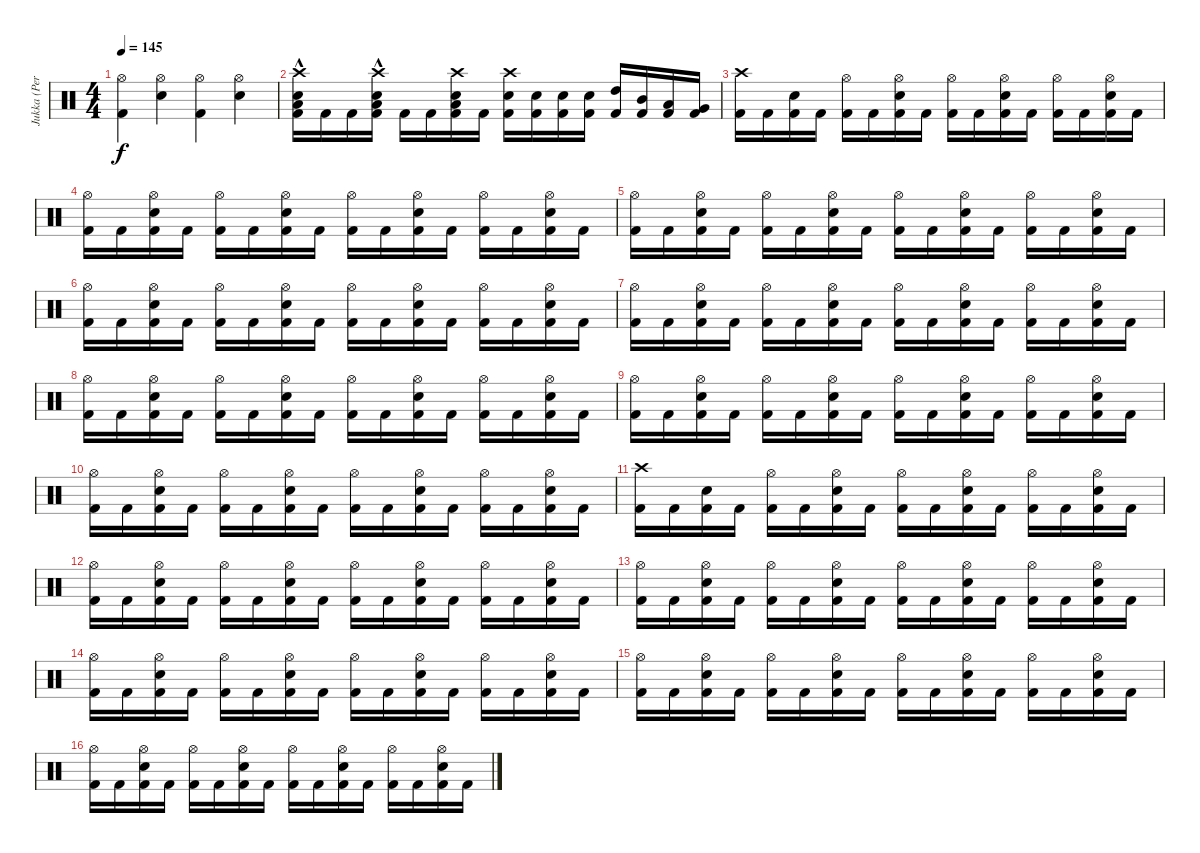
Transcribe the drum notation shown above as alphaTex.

\track ("Jukka (Percussion)" "Jukka (Per") {instrument percussion}
\staff {score}
\articulation defaults
\ts (4 4)
\tempo 145
\clef neutral
\ks c
("Kick (hit) 2" "Hi-Hat (open)").4{dy f} ("Electric Snare (hit)" "Hi-Hat (open)").4 ("Kick (hit) 2" "Hi-Hat (open)").4 ("Electric Snare (hit)" "Hi-Hat (open)").4 |
("Kick (hit) 2" "Electric Snare (hit)" "Low Floor Tom (hit)" "Crash high (hit)"{hac}).16 "Kick (hit) 2".16 "Kick (hit) 2".16 ("Kick (hit) 2" "Electric Snare (hit)" "Low Floor Tom (hit)" "Crash high (hit)"{hac}).16 "Kick (hit) 2".16 "Kick (hit) 2".16 ("Kick (hit) 2" "Electric Snare (hit)" "Low Floor Tom (hit)" "Crash high (hit)").16 "Kick (hit) 2".16 ("Kick (hit) 2" "Electric Snare (hit)" "Crash high (hit)").16 ("Kick (hit) 2" "Electric Snare (hit)").16 ("Kick (hit) 2" "Electric Snare (hit)").16 ("Kick (hit) 2" "Electric Snare (hit)").16 ("Kick (hit) 2" "High Tom (hit)").16 ("Kick (hit) 2" "Mid Tom (hit)").16 ("Kick (hit) 2" "Low Tom (hit)").16 ("Kick (hit) 2" "Very Low Tom (hit)").16 |
("Kick (hit) 2" "Crash high (hit)").16 "Kick (hit) 2".16 ("Kick (hit) 2" "Electric Snare (hit)").16 "Kick (hit) 2".16 ("Kick (hit) 2" "Hi-Hat (open)").16 "Kick (hit) 2".16 ("Kick (hit) 2" "Electric Snare (hit)" "Hi-Hat (open)").16 "Kick (hit) 2".16 ("Kick (hit) 2" "Hi-Hat (open)").16 "Kick (hit) 2".16 ("Kick (hit) 2" "Electric Snare (hit)" "Hi-Hat (open)").16 "Kick (hit) 2".16 ("Kick (hit) 2" "Hi-Hat (open)").16 "Kick (hit) 2".16 ("Kick (hit) 2" "Electric Snare (hit)" "Hi-Hat (open)").16 "Kick (hit) 2".16 |
("Kick (hit) 2" "Hi-Hat (open)").16 "Kick (hit) 2".16 ("Kick (hit) 2" "Electric Snare (hit)" "Hi-Hat (open)").16 "Kick (hit) 2".16 ("Kick (hit) 2" "Hi-Hat (open)").16 "Kick (hit) 2".16 ("Kick (hit) 2" "Electric Snare (hit)" "Hi-Hat (open)").16 "Kick (hit) 2".16 ("Kick (hit) 2" "Hi-Hat (open)").16 "Kick (hit) 2".16 ("Kick (hit) 2" "Electric Snare (hit)" "Hi-Hat (open)").16 "Kick (hit) 2".16 ("Kick (hit) 2" "Hi-Hat (open)").16 "Kick (hit) 2".16 ("Kick (hit) 2" "Electric Snare (hit)" "Hi-Hat (open)").16 "Kick (hit) 2".16 |
("Kick (hit) 2" "Hi-Hat (open)").16 "Kick (hit) 2".16 ("Kick (hit) 2" "Electric Snare (hit)" "Hi-Hat (open)").16 "Kick (hit) 2".16 ("Kick (hit) 2" "Hi-Hat (open)").16 "Kick (hit) 2".16 ("Kick (hit) 2" "Electric Snare (hit)" "Hi-Hat (open)").16 "Kick (hit) 2".16 ("Kick (hit) 2" "Hi-Hat (open)").16 "Kick (hit) 2".16 ("Kick (hit) 2" "Electric Snare (hit)" "Hi-Hat (open)").16 "Kick (hit) 2".16 ("Kick (hit) 2" "Hi-Hat (open)").16 "Kick (hit) 2".16 ("Kick (hit) 2" "Electric Snare (hit)" "Hi-Hat (open)").16 "Kick (hit) 2".16 |
("Kick (hit) 2" "Hi-Hat (open)").16 "Kick (hit) 2".16 ("Kick (hit) 2" "Electric Snare (hit)" "Hi-Hat (open)").16 "Kick (hit) 2".16 ("Kick (hit) 2" "Hi-Hat (open)").16 "Kick (hit) 2".16 ("Kick (hit) 2" "Electric Snare (hit)" "Hi-Hat (open)").16 "Kick (hit) 2".16 ("Kick (hit) 2" "Hi-Hat (open)").16 "Kick (hit) 2".16 ("Kick (hit) 2" "Electric Snare (hit)" "Hi-Hat (open)").16 "Kick (hit) 2".16 ("Kick (hit) 2" "Hi-Hat (open)").16 "Kick (hit) 2".16 ("Kick (hit) 2" "Electric Snare (hit)" "Hi-Hat (open)").16 "Kick (hit) 2".16 |
("Kick (hit) 2" "Hi-Hat (open)").16 "Kick (hit) 2".16 ("Kick (hit) 2" "Electric Snare (hit)" "Hi-Hat (open)").16 "Kick (hit) 2".16 ("Kick (hit) 2" "Hi-Hat (open)").16 "Kick (hit) 2".16 ("Kick (hit) 2" "Electric Snare (hit)" "Hi-Hat (open)").16 "Kick (hit) 2".16 ("Kick (hit) 2" "Hi-Hat (open)").16 "Kick (hit) 2".16 ("Kick (hit) 2" "Electric Snare (hit)" "Hi-Hat (open)").16 "Kick (hit) 2".16 ("Kick (hit) 2" "Hi-Hat (open)").16 "Kick (hit) 2".16 ("Kick (hit) 2" "Electric Snare (hit)" "Hi-Hat (open)").16 "Kick (hit) 2".16 |
("Kick (hit) 2" "Hi-Hat (open)").16 "Kick (hit) 2".16 ("Kick (hit) 2" "Electric Snare (hit)" "Hi-Hat (open)").16 "Kick (hit) 2".16 ("Kick (hit) 2" "Hi-Hat (open)").16 "Kick (hit) 2".16 ("Kick (hit) 2" "Electric Snare (hit)" "Hi-Hat (open)").16 "Kick (hit) 2".16 ("Kick (hit) 2" "Hi-Hat (open)").16 "Kick (hit) 2".16 ("Kick (hit) 2" "Electric Snare (hit)" "Hi-Hat (open)").16 "Kick (hit) 2".16 ("Kick (hit) 2" "Hi-Hat (open)").16 "Kick (hit) 2".16 ("Kick (hit) 2" "Electric Snare (hit)" "Hi-Hat (open)").16 "Kick (hit) 2".16 |
("Kick (hit) 2" "Hi-Hat (open)").16 "Kick (hit) 2".16 ("Kick (hit) 2" "Electric Snare (hit)" "Hi-Hat (open)").16 "Kick (hit) 2".16 ("Kick (hit) 2" "Hi-Hat (open)").16 "Kick (hit) 2".16 ("Kick (hit) 2" "Electric Snare (hit)" "Hi-Hat (open)").16 "Kick (hit) 2".16 ("Kick (hit) 2" "Hi-Hat (open)").16 "Kick (hit) 2".16 ("Kick (hit) 2" "Electric Snare (hit)" "Hi-Hat (open)").16 "Kick (hit) 2".16 ("Kick (hit) 2" "Hi-Hat (open)").16 "Kick (hit) 2".16 ("Kick (hit) 2" "Electric Snare (hit)" "Hi-Hat (open)").16 "Kick (hit) 2".16 |
("Kick (hit) 2" "Hi-Hat (open)").16 "Kick (hit) 2".16 ("Kick (hit) 2" "Electric Snare (hit)" "Hi-Hat (open)").16 "Kick (hit) 2".16 ("Kick (hit) 2" "Hi-Hat (open)").16 "Kick (hit) 2".16 ("Kick (hit) 2" "Electric Snare (hit)" "Hi-Hat (open)").16 "Kick (hit) 2".16 ("Kick (hit) 2" "Hi-Hat (open)").16 "Kick (hit) 2".16 ("Kick (hit) 2" "Electric Snare (hit)" "Hi-Hat (open)").16 "Kick (hit) 2".16 ("Kick (hit) 2" "Hi-Hat (open)").16 "Kick (hit) 2".16 ("Kick (hit) 2" "Electric Snare (hit)" "Hi-Hat (open)").16 "Kick (hit) 2".16 |
("Kick (hit) 2" "Crash high (hit)").16 "Kick (hit) 2".16 ("Kick (hit) 2" "Electric Snare (hit)").16 "Kick (hit) 2".16 ("Kick (hit) 2" "Hi-Hat (open)").16 "Kick (hit) 2".16 ("Kick (hit) 2" "Electric Snare (hit)" "Hi-Hat (open)").16 "Kick (hit) 2".16 ("Kick (hit) 2" "Hi-Hat (open)").16 "Kick (hit) 2".16 ("Kick (hit) 2" "Electric Snare (hit)" "Hi-Hat (open)").16 "Kick (hit) 2".16 ("Kick (hit) 2" "Hi-Hat (open)").16 "Kick (hit) 2".16 ("Kick (hit) 2" "Electric Snare (hit)" "Hi-Hat (open)").16 "Kick (hit) 2".16 |
("Kick (hit) 2" "Hi-Hat (open)").16 "Kick (hit) 2".16 ("Kick (hit) 2" "Electric Snare (hit)" "Hi-Hat (open)").16 "Kick (hit) 2".16 ("Kick (hit) 2" "Hi-Hat (open)").16 "Kick (hit) 2".16 ("Kick (hit) 2" "Electric Snare (hit)" "Hi-Hat (open)").16 "Kick (hit) 2".16 ("Kick (hit) 2" "Hi-Hat (open)").16 "Kick (hit) 2".16 ("Kick (hit) 2" "Electric Snare (hit)" "Hi-Hat (open)").16 "Kick (hit) 2".16 ("Kick (hit) 2" "Hi-Hat (open)").16 "Kick (hit) 2".16 ("Kick (hit) 2" "Electric Snare (hit)" "Hi-Hat (open)").16 "Kick (hit) 2".16 |
("Kick (hit) 2" "Hi-Hat (open)").16 "Kick (hit) 2".16 ("Kick (hit) 2" "Electric Snare (hit)" "Hi-Hat (open)").16 "Kick (hit) 2".16 ("Kick (hit) 2" "Hi-Hat (open)").16 "Kick (hit) 2".16 ("Kick (hit) 2" "Electric Snare (hit)" "Hi-Hat (open)").16 "Kick (hit) 2".16 ("Kick (hit) 2" "Hi-Hat (open)").16 "Kick (hit) 2".16 ("Kick (hit) 2" "Electric Snare (hit)" "Hi-Hat (open)").16 "Kick (hit) 2".16 ("Kick (hit) 2" "Hi-Hat (open)").16 "Kick (hit) 2".16 ("Kick (hit) 2" "Electric Snare (hit)" "Hi-Hat (open)").16 "Kick (hit) 2".16 |
("Kick (hit) 2" "Hi-Hat (open)").16 "Kick (hit) 2".16 ("Kick (hit) 2" "Electric Snare (hit)" "Hi-Hat (open)").16 "Kick (hit) 2".16 ("Kick (hit) 2" "Hi-Hat (open)").16 "Kick (hit) 2".16 ("Kick (hit) 2" "Electric Snare (hit)" "Hi-Hat (open)").16 "Kick (hit) 2".16 ("Kick (hit) 2" "Hi-Hat (open)").16 "Kick (hit) 2".16 ("Kick (hit) 2" "Electric Snare (hit)" "Hi-Hat (open)").16 "Kick (hit) 2".16 ("Kick (hit) 2" "Hi-Hat (open)").16 "Kick (hit) 2".16 ("Kick (hit) 2" "Electric Snare (hit)" "Hi-Hat (open)").16 "Kick (hit) 2".16 |
("Kick (hit) 2" "Hi-Hat (open)").16 "Kick (hit) 2".16 ("Kick (hit) 2" "Electric Snare (hit)" "Hi-Hat (open)").16 "Kick (hit) 2".16 ("Kick (hit) 2" "Hi-Hat (open)").16 "Kick (hit) 2".16 ("Kick (hit) 2" "Electric Snare (hit)" "Hi-Hat (open)").16 "Kick (hit) 2".16 ("Kick (hit) 2" "Hi-Hat (open)").16 "Kick (hit) 2".16 ("Kick (hit) 2" "Electric Snare (hit)" "Hi-Hat (open)").16 "Kick (hit) 2".16 ("Kick (hit) 2" "Hi-Hat (open)").16 "Kick (hit) 2".16 ("Kick (hit) 2" "Electric Snare (hit)" "Hi-Hat (open)").16 "Kick (hit) 2".16 |
("Kick (hit) 2" "Hi-Hat (open)").16 "Kick (hit) 2".16 ("Kick (hit) 2" "Electric Snare (hit)" "Hi-Hat (open)").16 "Kick (hit) 2".16 ("Kick (hit) 2" "Hi-Hat (open)").16 "Kick (hit) 2".16 ("Kick (hit) 2" "Electric Snare (hit)" "Hi-Hat (open)").16 "Kick (hit) 2".16 ("Kick (hit) 2" "Hi-Hat (open)").16 "Kick (hit) 2".16 ("Kick (hit) 2" "Electric Snare (hit)" "Hi-Hat (open)").16 "Kick (hit) 2".16 ("Kick (hit) 2" "Hi-Hat (open)").16 "Kick (hit) 2".16 ("Kick (hit) 2" "Electric Snare (hit)" "Hi-Hat (open)").16 "Kick (hit) 2".16
